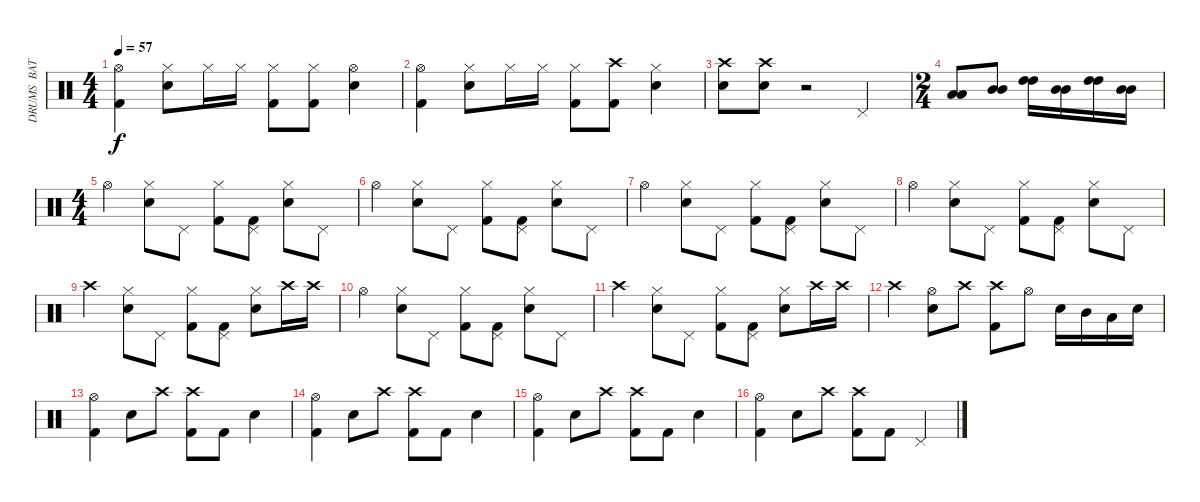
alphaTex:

\track ("DRUMS  BATERIA" "DRUMS  BAT") {instrument percussion}
\staff {score}
\articulation defaults
\ts (4 4)
\tempo 57
\clef neutral
\ks c
("Hi-Hat (open)" "Kick (hit) 2").4{dy f} ("Hi-Hat (closed)" "Snare (hit) 2").8 "Hi-Hat (closed)".16 "Hi-Hat (closed)".16 ("Hi-Hat (closed)" "Kick (hit) 2").8 ("Hi-Hat (closed)" "Kick (hit) 2").8 ("Hi-Hat (open)" "Snare (hit) 2").4 |
("Hi-Hat (open)" "Kick (hit) 2").4 ("Hi-Hat (closed)" "Snare (hit) 2").8 "Hi-Hat (closed)".16 "Hi-Hat (closed)".16 ("Hi-Hat (closed)" "Kick (hit) 2").8 ("Crash high (hit)" "Kick (hit) 2").8 ("Hi-Hat (closed)" "Snare (hit) 2").4 |
("Crash high (hit)" "Snare (hit) 2").8 ("Crash high (hit)" "Snare (hit) 2").8 r.2 "Pedal Hi-Hat (hit)".4 |
\ts (2 4)
("Low Tom (hit)" "Low Tom (hit)").8 ("Mid Tom (hit)" "Mid Tom (hit)").8 ("High Tom (hit)" "High Tom (hit)").16 ("Mid Tom (hit)" "Mid Tom (hit)").16 ("High Tom (hit)" "High Tom (hit)").16 ("Mid Tom (hit)" "Mid Tom (hit)").16 |
\ts (4 4)
"Hi-Hat (open)".4 ("Hi-Hat (closed)" "Snare (hit) 2").8 "Pedal Hi-Hat (hit)".8 ("Hi-Hat (closed)" "Kick (hit) 2").8 ("Pedal Hi-Hat (hit)" "Kick (hit) 2").8 ("Hi-Hat (closed)" "Snare (hit) 2").8 "Pedal Hi-Hat (hit)".8 |
"Hi-Hat (open)".4 ("Hi-Hat (closed)" "Snare (hit) 2").8 "Pedal Hi-Hat (hit)".8 ("Hi-Hat (closed)" "Kick (hit) 2").8 ("Pedal Hi-Hat (hit)" "Kick (hit) 2").8 ("Hi-Hat (closed)" "Snare (hit) 2").8 "Pedal Hi-Hat (hit)".8 |
"Hi-Hat (open)".4 ("Hi-Hat (closed)" "Snare (hit) 2").8 "Pedal Hi-Hat (hit)".8 ("Hi-Hat (closed)" "Kick (hit) 2").8 ("Pedal Hi-Hat (hit)" "Kick (hit) 2").8 ("Hi-Hat (closed)" "Snare (hit) 2").8 "Pedal Hi-Hat (hit)".8 |
"Hi-Hat (open)".4 ("Hi-Hat (closed)" "Snare (hit) 2").8 "Pedal Hi-Hat (hit)".8 ("Hi-Hat (closed)" "Kick (hit) 2").8 ("Pedal Hi-Hat (hit)" "Kick (hit) 2").8 ("Hi-Hat (closed)" "Snare (hit) 2").8 "Pedal Hi-Hat (hit)".8 |
"Crash high (hit)".4 ("Hi-Hat (closed)" "Snare (hit) 2").8 "Pedal Hi-Hat (hit)".8 ("Hi-Hat (closed)" "Kick (hit) 2").8 ("Pedal Hi-Hat (hit)" "Kick (hit) 2").8 ("Hi-Hat (closed)" "Snare (hit) 2").8 "Crash high (hit)".16 "Crash high (hit)".16 |
"Hi-Hat (open)".4 ("Hi-Hat (closed)" "Snare (hit) 2").8 "Pedal Hi-Hat (hit)".8 ("Hi-Hat (closed)" "Kick (hit) 2").8 ("Pedal Hi-Hat (hit)" "Kick (hit) 2").8 ("Hi-Hat (closed)" "Snare (hit) 2").8 "Pedal Hi-Hat (hit)".8 |
"Crash high (hit)".4 ("Hi-Hat (closed)" "Snare (hit) 2").8 "Pedal Hi-Hat (hit)".8 ("Hi-Hat (closed)" "Kick (hit) 2").8 ("Pedal Hi-Hat (hit)" "Kick (hit) 2").8 ("Hi-Hat (closed)" "Snare (hit) 2").8 "Crash high (hit)".16 "Crash high (hit)".16 |
"Crash high (hit)".4 ("Hi-Hat (open)" "Snare (hit) 2").8 "Crash high (hit)".8 ("Crash high (hit)" "Kick (hit) 2").8 "Hi-Hat (open)".8 "Snare (hit) 2".16 "Mid Tom (hit)".16 "Low Tom (hit)".16 "Snare (hit) 2".16 |
("Hi-Hat (open)" "Kick (hit) 2").4 "Snare (hit) 2".8 "Crash high (hit)".8 ("Crash high (hit)" "Kick (hit) 2").8 "Kick (hit) 2".8 "Snare (hit) 2".4 |
("Hi-Hat (open)" "Kick (hit) 2").4 "Snare (hit) 2".8 "Crash high (hit)".8 ("Crash high (hit)" "Kick (hit) 2").8 "Kick (hit) 2".8 "Snare (hit) 2".4 |
("Hi-Hat (open)" "Kick (hit) 2").4 "Snare (hit) 2".8 "Crash high (hit)".8 ("Crash high (hit)" "Kick (hit) 2").8 "Kick (hit) 2".8 "Snare (hit) 2".4 |
("Hi-Hat (open)" "Kick (hit) 2").4 "Snare (hit) 2".8 "Crash high (hit)".8 ("Crash high (hit)" "Kick (hit) 2").8 "Kick (hit) 2".8 "Pedal Hi-Hat (hit)".4
